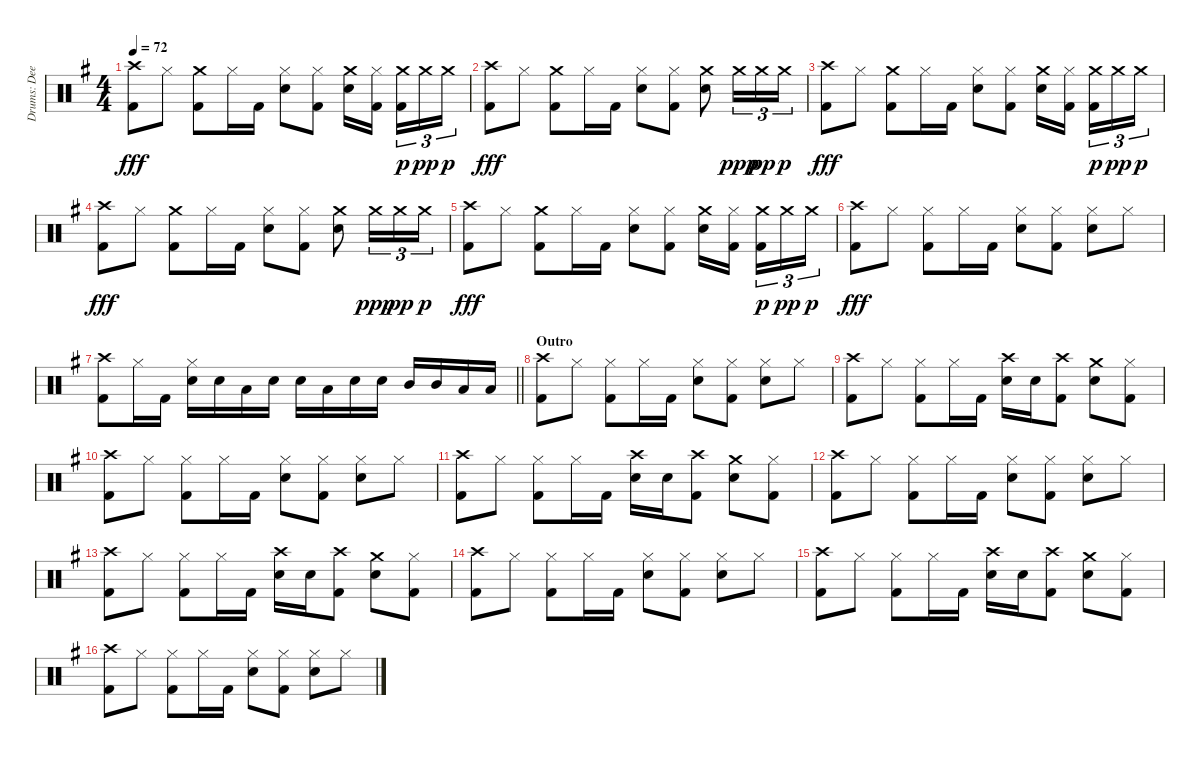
\track ("Drums: Deen" "Drums: Dee") {instrument percussion}
\staff {score}
\articulation defaults
\ts (4 4)
\tempo 72
\clef neutral
\ks g
("Crash high (hit)" "Kick (hit) 2").8{dy fff} "Hi-Hat (closed)".8 ("Crash medium (hit)" "Kick (hit) 2").8 "Hi-Hat (closed)".16 "Kick (hit) 2".16 ("Hi-Hat (closed)" "Electric Snare (hit)").8 ("Hi-Hat (closed)" "Kick (hit) 2").8 ("Crash medium (hit)" "Electric Snare (hit)").16 ("Hi-Hat (closed)" "Kick (hit) 2").16{beam splitsecondary} ("Crash medium (hit)" "Kick (hit) 2").16{tu (3 2) dy p} "Crash medium (hit)".16{tu (3 2) dy pp} "Crash medium (hit)".16{tu (3 2) dy p} |
("Crash high (hit)" "Kick (hit) 2").8{dy fff} "Hi-Hat (closed)".8 ("Crash medium (hit)" "Kick (hit) 2").8 "Hi-Hat (closed)".16 "Kick (hit) 2".16 ("Hi-Hat (closed)" "Electric Snare (hit)").8 ("Hi-Hat (closed)" "Kick (hit) 2").8 ("Crash medium (hit)" "Electric Snare (hit)").8 "Crash medium (hit)".16{tu (3 2) dy ppp} "Crash medium (hit)".16{tu (3 2) dy pp} "Crash medium (hit)".16{tu (3 2) dy p} |
("Crash high (hit)" "Kick (hit) 2").8{dy fff} "Hi-Hat (closed)".8 ("Crash medium (hit)" "Kick (hit) 2").8 "Hi-Hat (closed)".16 "Kick (hit) 2".16 ("Hi-Hat (closed)" "Electric Snare (hit)").8 ("Hi-Hat (closed)" "Kick (hit) 2").8 ("Crash medium (hit)" "Electric Snare (hit)").16 ("Hi-Hat (closed)" "Kick (hit) 2").16{beam splitsecondary} ("Crash medium (hit)" "Kick (hit) 2").16{tu (3 2) dy p} "Crash medium (hit)".16{tu (3 2) dy pp} "Crash medium (hit)".16{tu (3 2) dy p} |
("Crash high (hit)" "Kick (hit) 2").8{dy fff} "Hi-Hat (closed)".8 ("Crash medium (hit)" "Kick (hit) 2").8 "Hi-Hat (closed)".16 "Kick (hit) 2".16 ("Hi-Hat (closed)" "Electric Snare (hit)").8 ("Hi-Hat (closed)" "Kick (hit) 2").8 ("Crash medium (hit)" "Electric Snare (hit)").8 "Crash medium (hit)".16{tu (3 2) dy ppp} "Crash medium (hit)".16{tu (3 2) dy pp} "Crash medium (hit)".16{tu (3 2) dy p} |
("Crash high (hit)" "Kick (hit) 2").8{dy fff} "Hi-Hat (closed)".8 ("Crash medium (hit)" "Kick (hit) 2").8 "Hi-Hat (closed)".16 "Kick (hit) 2".16 ("Hi-Hat (closed)" "Electric Snare (hit)").8 ("Hi-Hat (closed)" "Kick (hit) 2").8 ("Crash medium (hit)" "Electric Snare (hit)").16 ("Hi-Hat (closed)" "Kick (hit) 2").16{beam splitsecondary} ("Crash medium (hit)" "Kick (hit) 2").16{tu (3 2) dy p} "Crash medium (hit)".16{tu (3 2) dy pp} "Crash medium (hit)".16{tu (3 2) dy p} |
("Crash high (hit)" "Kick (hit) 2").8{dy fff} "Hi-Hat (closed)".8 ("Hi-Hat (closed)" "Kick (hit) 2").8 "Hi-Hat (closed)".16 "Kick (hit) 2".16 ("Hi-Hat (closed)" "Electric Snare (hit)").8 ("Hi-Hat (closed)" "Kick (hit) 2").8 ("Hi-Hat (closed)" "Electric Snare (hit)").8 "Hi-Hat (closed)".8 |
\barLineRight lightlight
("Crash high (hit)" "Kick (hit) 2").8 "Hi-Hat (closed)".16 "Kick (hit) 2".16 ("Hi-Hat (closed)" "Electric Snare (hit)").16 "Electric Snare (hit)".16 "Low Tom (hit)".16 "Electric Snare (hit)".16 "Electric Snare (hit)".16 "Low Tom (hit)".16 "Electric Snare (hit)".16 "Electric Snare (hit)".16 "Mid Tom (hit)".16 "Mid Tom (hit)".16 "Low Tom (hit)".16 "Low Tom (hit)".16 |
\section ("" "Outro")
("Crash high (hit)" "Kick (hit) 2").8 "Hi-Hat (closed)".8 ("Hi-Hat (closed)" "Kick (hit) 2").8 "Hi-Hat (closed)".16 "Kick (hit) 2".16 ("Hi-Hat (closed)" "Electric Snare (hit)").8 ("Hi-Hat (closed)" "Kick (hit) 2").8 ("Hi-Hat (closed)" "Electric Snare (hit)").8 "Hi-Hat (closed)".8 |
("Crash high (hit)" "Kick (hit) 2").8 "Hi-Hat (closed)".8 ("Hi-Hat (closed)" "Kick (hit) 2").8 "Hi-Hat (closed)".16 "Kick (hit) 2".16 ("Crash high (hit)" "Electric Snare (hit)").16 "Electric Snare (hit)".16 ("Crash high (hit)" "Kick (hit) 2").8 ("Crash medium (hit)" "Electric Snare (hit)").8 ("Hi-Hat (closed)" "Kick (hit) 2").8 |
("Crash high (hit)" "Kick (hit) 2").8 "Hi-Hat (closed)".8 ("Hi-Hat (closed)" "Kick (hit) 2").8 "Hi-Hat (closed)".16 "Kick (hit) 2".16 ("Hi-Hat (closed)" "Electric Snare (hit)").8 ("Hi-Hat (closed)" "Kick (hit) 2").8 ("Hi-Hat (closed)" "Electric Snare (hit)").8 "Hi-Hat (closed)".8 |
("Crash high (hit)" "Kick (hit) 2").8 "Hi-Hat (closed)".8 ("Hi-Hat (closed)" "Kick (hit) 2").8 "Hi-Hat (closed)".16 "Kick (hit) 2".16 ("Crash high (hit)" "Electric Snare (hit)").16 "Electric Snare (hit)".16 ("Crash high (hit)" "Kick (hit) 2").8 ("Crash medium (hit)" "Electric Snare (hit)").8 ("Hi-Hat (closed)" "Kick (hit) 2").8 |
("Crash high (hit)" "Kick (hit) 2").8 "Hi-Hat (closed)".8 ("Hi-Hat (closed)" "Kick (hit) 2").8 "Hi-Hat (closed)".16 "Kick (hit) 2".16 ("Hi-Hat (closed)" "Electric Snare (hit)").8 ("Hi-Hat (closed)" "Kick (hit) 2").8 ("Hi-Hat (closed)" "Electric Snare (hit)").8 "Hi-Hat (closed)".8 |
("Crash high (hit)" "Kick (hit) 2").8 "Hi-Hat (closed)".8 ("Hi-Hat (closed)" "Kick (hit) 2").8 "Hi-Hat (closed)".16 "Kick (hit) 2".16 ("Crash high (hit)" "Electric Snare (hit)").16 "Electric Snare (hit)".16 ("Crash high (hit)" "Kick (hit) 2").8 ("Crash medium (hit)" "Electric Snare (hit)").8 ("Hi-Hat (closed)" "Kick (hit) 2").8 |
("Crash high (hit)" "Kick (hit) 2").8 "Hi-Hat (closed)".8 ("Hi-Hat (closed)" "Kick (hit) 2").8 "Hi-Hat (closed)".16 "Kick (hit) 2".16 ("Hi-Hat (closed)" "Electric Snare (hit)").8 ("Hi-Hat (closed)" "Kick (hit) 2").8 ("Hi-Hat (closed)" "Electric Snare (hit)").8 "Hi-Hat (closed)".8 |
("Crash high (hit)" "Kick (hit) 2").8 "Hi-Hat (closed)".8 ("Hi-Hat (closed)" "Kick (hit) 2").8 "Hi-Hat (closed)".16 "Kick (hit) 2".16 ("Crash high (hit)" "Electric Snare (hit)").16 "Electric Snare (hit)".16 ("Crash high (hit)" "Kick (hit) 2").8 ("Crash medium (hit)" "Electric Snare (hit)").8 ("Hi-Hat (closed)" "Kick (hit) 2").8 |
("Crash high (hit)" "Kick (hit) 2").8 "Hi-Hat (closed)".8 ("Hi-Hat (closed)" "Kick (hit) 2").8 "Hi-Hat (closed)".16 "Kick (hit) 2".16 ("Hi-Hat (closed)" "Electric Snare (hit)").8 ("Hi-Hat (closed)" "Kick (hit) 2").8 ("Hi-Hat (closed)" "Electric Snare (hit)").8 "Hi-Hat (closed)".8
